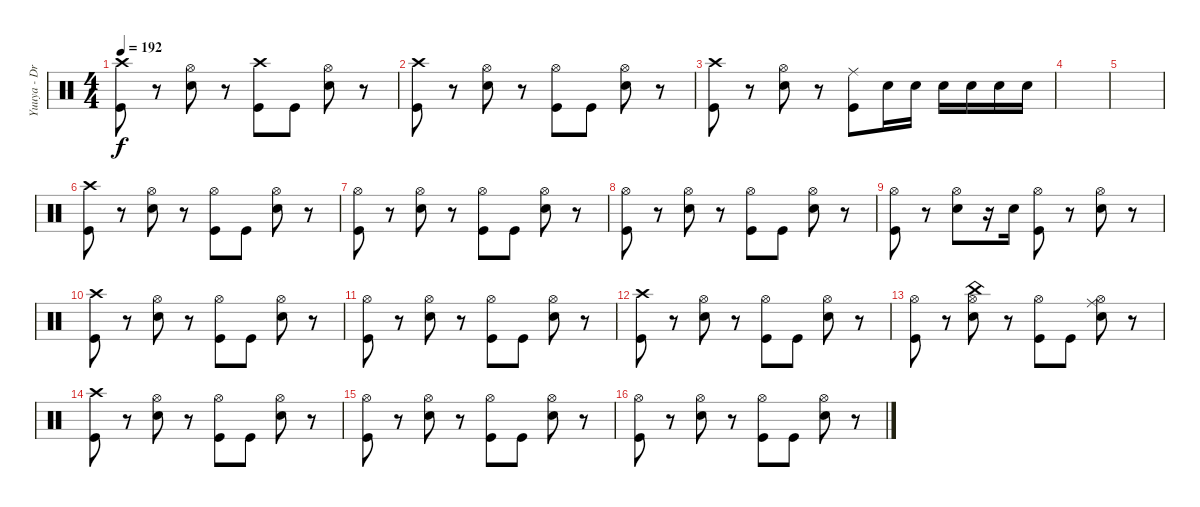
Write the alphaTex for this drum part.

\track ("Yuuya - Drums" "Yuuya - Dr") {instrument percussion}
\staff {score}
\articulation defaults
\ts (4 4)
\tempo 192
\clef neutral
\ks c
("Kick (hit)" "Crash high (hit)").8{dy f} r.8 ("Electric Snare (hit)" "Hi-Hat (open)").8 r.8 ("Kick (hit)" "Crash high (hit)").8 "Kick (hit)".8 ("Electric Snare (hit)" "Hi-Hat (open)").8 r.8 |
("Kick (hit)" "Crash high (hit)").8 r.8 ("Electric Snare (hit)" "Hi-Hat (open)").8 r.8 ("Kick (hit)" "Hi-Hat (open)").8 "Kick (hit)".8 ("Electric Snare (hit)" "Hi-Hat (open)").8 r.8 |
("Kick (hit)" "Crash high (hit)").8 r.8 ("Electric Snare (hit)" "Hi-Hat (open)").8 r.8 ("Kick (hit)" "Ride (middle)").8 "Electric Snare (hit)".16 "Electric Snare (hit)".16 "Electric Snare (hit)".16 "Electric Snare (hit)".16 "Electric Snare (hit)".16 "Electric Snare (hit)".16 |
|
|
("Kick (hit)" "Crash high (hit)").8 r.8 ("Electric Snare (hit)" "Hi-Hat (open)").8 r.8 ("Kick (hit)" "Hi-Hat (open)").8 "Kick (hit)".8 ("Electric Snare (hit)" "Hi-Hat (open)").8 r.8 |
("Kick (hit)" "Hi-Hat (open)").8 r.8 ("Electric Snare (hit)" "Hi-Hat (open)").8 r.8 ("Kick (hit)" "Hi-Hat (open)").8 "Kick (hit)".8 ("Electric Snare (hit)" "Hi-Hat (open)").8 r.8 |
("Kick (hit)" "Hi-Hat (open)").8 r.8 ("Electric Snare (hit)" "Hi-Hat (open)").8 r.8 ("Kick (hit)" "Hi-Hat (open)").8 "Kick (hit)".8 ("Electric Snare (hit)" "Hi-Hat (open)").8 r.8 |
("Kick (hit)" "Hi-Hat (open)").8 r.8 ("Electric Snare (hit)" "Hi-Hat (open)").8 r.16 "Electric Snare (hit)".16 ("Kick (hit)" "Hi-Hat (open)").8 r.8 ("Electric Snare (hit)" "Hi-Hat (open)").8 r.8 |
("Kick (hit)" "Crash high (hit)").8 r.8 ("Electric Snare (hit)" "Hi-Hat (open)").8 r.8 ("Kick (hit)" "Hi-Hat (open)").8 "Kick (hit)".8 ("Electric Snare (hit)" "Hi-Hat (open)").8 r.8 |
("Kick (hit)" "Hi-Hat (open)").8 r.8 ("Electric Snare (hit)" "Hi-Hat (open)").8 r.8 ("Kick (hit)" "Hi-Hat (open)").8 "Kick (hit)".8 ("Electric Snare (hit)" "Hi-Hat (open)").8 r.8 |
("Kick (hit)" "Crash high (hit)").8 r.8 ("Electric Snare (hit)" "Hi-Hat (open)").8 r.8 ("Kick (hit)" "Hi-Hat (open)").8 "Kick (hit)".8 ("Electric Snare (hit)" "Hi-Hat (open)").8 r.8 |
("Kick (hit)" "Hi-Hat (open)").8 r.8 ("Electric Snare (hit)" "Hi-Hat (open)" "China (hit)").8 r.8 ("Kick (hit)" "Hi-Hat (open)").8 "Kick (hit)".8 ("Electric Snare (hit)" "Hi-Hat (open)" "Ride (middle)").8 r.8 |
("Kick (hit)" "Crash high (hit)").8 r.8 ("Electric Snare (hit)" "Hi-Hat (open)").8 r.8 ("Kick (hit)" "Hi-Hat (open)").8 "Kick (hit)".8 ("Electric Snare (hit)" "Hi-Hat (open)").8 r.8 |
("Kick (hit)" "Hi-Hat (open)").8 r.8 ("Electric Snare (hit)" "Hi-Hat (open)").8 r.8 ("Kick (hit)" "Hi-Hat (open)").8 "Kick (hit)".8 ("Electric Snare (hit)" "Hi-Hat (open)").8 r.8 |
("Kick (hit)" "Hi-Hat (open)").8 r.8 ("Electric Snare (hit)" "Hi-Hat (open)").8 r.8 ("Kick (hit)" "Hi-Hat (open)").8 "Kick (hit)".8 ("Electric Snare (hit)" "Hi-Hat (open)").8 r.8
